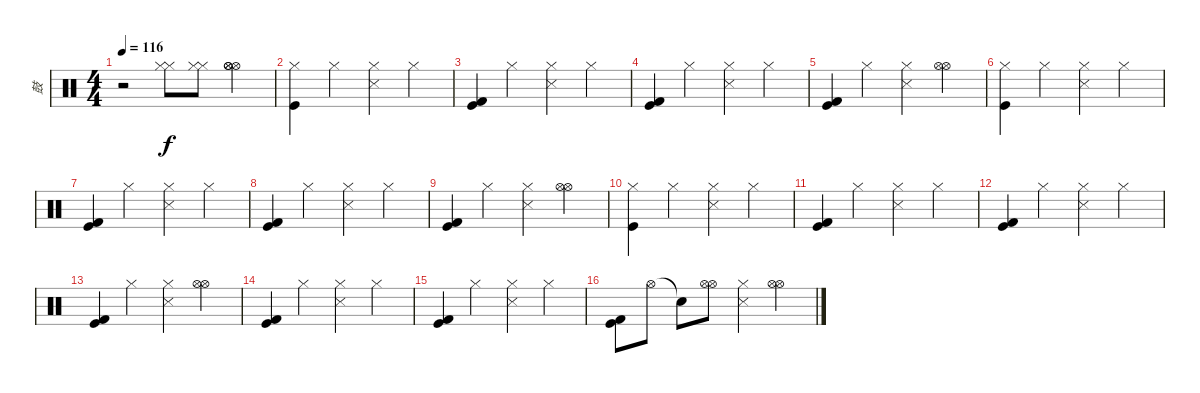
\track ("鼓" "鼓") {instrument percussion}
\staff {score}
\articulation defaults
\ts (4 4)
\tempo 116
\clef neutral
\ks c
r.2{dy f} ("Hi-Hat (closed)" "Hi-Hat (closed)").8 ("Hi-Hat (closed)" "Hi-Hat (closed)").8 ("Hi-Hat (open)" "Hi-Hat (open)" "Hi-Hat (open)").4 |
("Kick (hit)" "Hi-Hat (closed)").4 "Hi-Hat (closed)".4 ("Snare (side stick) 3" "Hi-Hat (closed)").4 "Hi-Hat (closed)".4 |
("Kick (hit) 2" "Kick (hit)").4 "Hi-Hat (closed)".4 ("Snare (side stick) 3" "Hi-Hat (closed)").4 "Hi-Hat (closed)".4 |
("Kick (hit) 2" "Kick (hit)").4 "Hi-Hat (closed)".4 ("Snare (side stick) 3" "Hi-Hat (closed)").4 "Hi-Hat (closed)".4 |
("Kick (hit) 2" "Kick (hit)").4 "Hi-Hat (closed)".4 ("Snare (side stick) 3" "Hi-Hat (closed)").4 ("Hi-Hat (open)" "Hi-Hat (open)").4 |
("Kick (hit)" "Hi-Hat (closed)").4 "Hi-Hat (closed)".4 ("Snare (side stick) 3" "Hi-Hat (closed)").4 "Hi-Hat (closed)".4 |
("Kick (hit) 2" "Kick (hit)").4 "Hi-Hat (closed)".4 ("Snare (side stick) 3" "Hi-Hat (closed)").4 "Hi-Hat (closed)".4 |
("Kick (hit) 2" "Kick (hit)").4 "Hi-Hat (closed)".4 ("Snare (side stick) 3" "Hi-Hat (closed)").4 "Hi-Hat (closed)".4 |
("Kick (hit) 2" "Kick (hit)").4 "Hi-Hat (closed)".4 ("Snare (side stick) 3" "Hi-Hat (closed)").4 ("Hi-Hat (open)" "Hi-Hat (open)").4 |
("Kick (hit)" "Hi-Hat (closed)").4 "Hi-Hat (closed)".4 ("Snare (side stick) 3" "Hi-Hat (closed)").4 "Hi-Hat (closed)".4 |
("Kick (hit) 2" "Kick (hit)").4 "Hi-Hat (closed)".4 ("Snare (side stick) 3" "Hi-Hat (closed)").4 "Hi-Hat (closed)".4 |
("Kick (hit) 2" "Kick (hit)").4 "Hi-Hat (closed)".4 ("Snare (side stick) 3" "Hi-Hat (closed)").4 "Hi-Hat (closed)".4 |
("Kick (hit) 2" "Kick (hit)").4 "Hi-Hat (closed)".4 ("Snare (side stick) 3" "Hi-Hat (closed)").4 ("Hi-Hat (open)" "Hi-Hat (open)").4 |
("Kick (hit) 2" "Kick (hit)").4 "Hi-Hat (closed)".4 ("Snare (side stick) 3" "Hi-Hat (closed)").4 "Hi-Hat (closed)".4 |
("Kick (hit) 2" "Kick (hit)").4 "Hi-Hat (closed)".4 ("Snare (side stick) 3" "Hi-Hat (closed)").4 "Hi-Hat (closed)".4 |
("Kick (hit) 2" "Kick (hit)").8 "Hi-Hat (open)".8 "Snare (hit)"{t}.8 ("Hi-Hat (open)" "Hi-Hat (open)").8 ("Snare (side stick) 3" "Hi-Hat (closed)").4 ("Hi-Hat (open)" "Hi-Hat (open)").4
